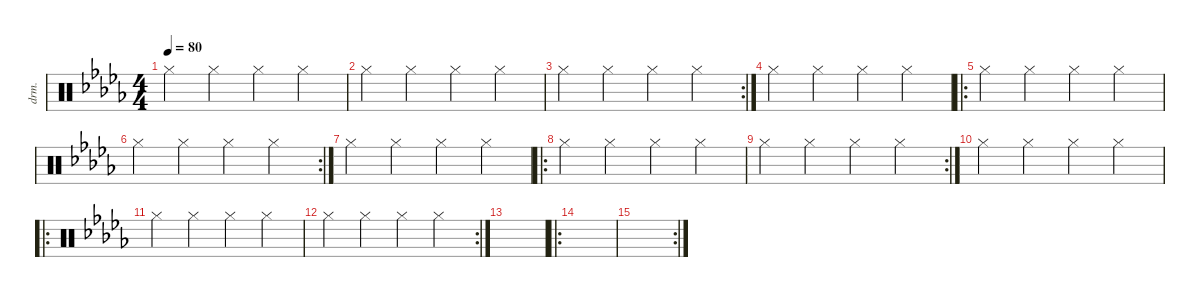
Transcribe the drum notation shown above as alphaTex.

\defaultSystemsLayout 4
\hideDynamics
\bracketExtendMode nobrackets
\track ("Drumkit" "drm.") {instrument percussion}
\staff {score}
\articulation defaults
\ts (4 4)
\tempo 80
\clef neutral
\ks db "Hi-Hat (closed)"{acc forcenatural}.4{dy mf} "Hi-Hat (closed)"{acc forcenatural}.4 "Hi-Hat (closed)"{acc forcenatural}.4 "Hi-Hat (closed)"{acc forcenatural}.4
|
"Hi-Hat (closed)"{acc forcenatural}.4 "Hi-Hat (closed)"{acc forcenatural}.4 "Hi-Hat (closed)"{acc forcenatural}.4 "Hi-Hat (closed)"{acc forcenatural}.4 |
\rc 2 "Hi-Hat (closed)"{acc forcenatural}.4 "Hi-Hat (closed)"{acc forcenatural}.4 "Hi-Hat (closed)"{acc forcenatural}.4 "Hi-Hat (closed)"{acc forcenatural}.4
|
"Hi-Hat (closed)"{acc forcenatural}.4 "Hi-Hat (closed)"{acc forcenatural}.4 "Hi-Hat (closed)"{acc forcenatural}.4 "Hi-Hat (closed)"{acc forcenatural}.4 |
\ro "Hi-Hat (closed)"{acc forcenatural}.4 "Hi-Hat (closed)"{acc forcenatural}.4 "Hi-Hat (closed)"{acc forcenatural}.4 "Hi-Hat (closed)"{acc forcenatural}.4
|
\rc 2 "Hi-Hat (closed)"{acc forcenatural}.4 "Hi-Hat (closed)"{acc forcenatural}.4 "Hi-Hat (closed)"{acc forcenatural}.4 "Hi-Hat (closed)"{acc forcenatural}.4
|
"Hi-Hat (closed)"{acc forcenatural}.4 "Hi-Hat (closed)"{acc forcenatural}.4 "Hi-Hat (closed)"{acc forcenatural}.4 "Hi-Hat (closed)"{acc forcenatural}.4 |
\ro "Hi-Hat (closed)"{acc forcenatural}.4 "Hi-Hat (closed)"{acc forcenatural}.4 "Hi-Hat (closed)"{acc forcenatural}.4 "Hi-Hat (closed)"{acc forcenatural}.4
|
\rc 2 "Hi-Hat (closed)"{acc forcenatural}.4 "Hi-Hat (closed)"{acc forcenatural}.4 "Hi-Hat (closed)"{acc forcenatural}.4 "Hi-Hat (closed)"{acc forcenatural}.4
|
"Hi-Hat (closed)"{acc forcenatural}.4 "Hi-Hat (closed)"{acc forcenatural}.4 "Hi-Hat (closed)"{acc forcenatural}.4 "Hi-Hat (closed)"{acc forcenatural}.4 |
\ro "Hi-Hat (closed)"{acc forcenatural}.4 "Hi-Hat (closed)"{acc forcenatural}.4 "Hi-Hat (closed)"{acc forcenatural}.4 "Hi-Hat (closed)"{acc forcenatural}.4
|
\rc 2 "Hi-Hat (closed)"{acc forcenatural}.4 "Hi-Hat (closed)"{acc forcenatural}.4 "Hi-Hat (closed)"{acc forcenatural}.4 "Hi-Hat (closed)"{acc forcenatural}.4
|
|
\ro
|
\rc 2
